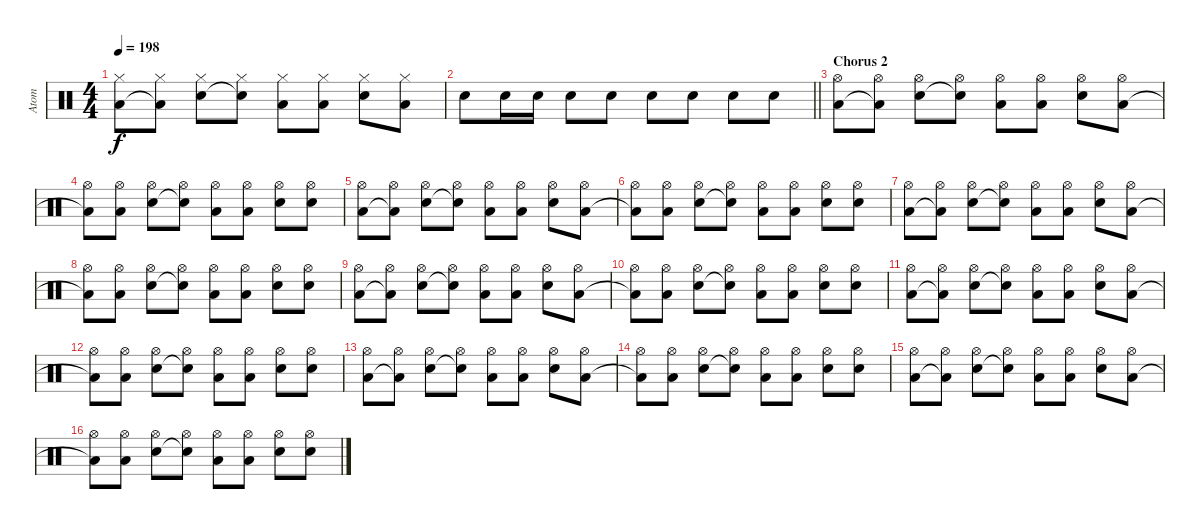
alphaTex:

\track ("Atom" "Atom") {instrument percussion}
\staff
\articulation defaults
\ts (4 4)
\tempo 198
\clef neutral
\ks c
("Low Floor Tom (hit)" "Hi-Hat (closed)").8{dy f} ("Low Floor Tom (hit)"{t} "Hi-Hat (closed)").8 ("Snare (hit) 2" "Hi-Hat (closed)").8 ("Snare (hit) 2"{t} "Hi-Hat (closed)").8 ("Low Floor Tom (hit)" "Hi-Hat (closed)").8 ("Low Floor Tom (hit)" "Hi-Hat (closed)").8 ("Snare (hit) 2" "Hi-Hat (closed)").8 ("Low Floor Tom (hit)" "Hi-Hat (closed)").8 |
\barLineRight lightlight "Snare (hit) 2".8 "Snare (hit) 2".16 "Snare (hit) 2".16 "Snare (hit) 2".8 "Snare (hit) 2".8 "Snare (hit) 2".8 "Snare (hit) 2".8 "Snare (hit) 2".8 "Snare (hit) 2".8
|
\section ("" "Chorus 2")
("Low Floor Tom (hit)" "Hi-Hat (open)").8 ("Low Floor Tom (hit)"{t} "Hi-Hat (open)").8 ("Snare (hit) 2" "Hi-Hat (open)").8 ("Snare (hit) 2"{t} "Hi-Hat (open)").8 ("Low Floor Tom (hit)" "Hi-Hat (open)").8 ("Low Floor Tom (hit)" "Hi-Hat (open)").8 ("Snare (hit) 2" "Hi-Hat (open)").8 ("Low Floor Tom (hit)" "Hi-Hat (open)").8 |
("Low Floor Tom (hit)"{t} "Hi-Hat (open)").8 ("Low Floor Tom (hit)" "Hi-Hat (open)").8 ("Snare (hit) 2" "Hi-Hat (open)").8 ("Snare (hit) 2"{t} "Hi-Hat (open)").8 ("Low Floor Tom (hit)" "Hi-Hat (open)").8 ("Low Floor Tom (hit)" "Hi-Hat (open)").8 ("Snare (hit) 2" "Hi-Hat (open)").8 ("Snare (hit) 2" "Hi-Hat (open)").8 |
("Low Floor Tom (hit)" "Hi-Hat (open)").8 ("Low Floor Tom (hit)"{t} "Hi-Hat (open)").8 ("Snare (hit) 2" "Hi-Hat (open)").8 ("Snare (hit) 2"{t} "Hi-Hat (open)").8 ("Low Floor Tom (hit)" "Hi-Hat (open)").8 ("Low Floor Tom (hit)" "Hi-Hat (open)").8 ("Snare (hit) 2" "Hi-Hat (open)").8 ("Low Floor Tom (hit)" "Hi-Hat (open)").8 |
("Low Floor Tom (hit)"{t} "Hi-Hat (open)").8 ("Low Floor Tom (hit)" "Hi-Hat (open)").8 ("Snare (hit) 2" "Hi-Hat (open)").8 ("Snare (hit) 2"{t} "Hi-Hat (open)").8 ("Low Floor Tom (hit)" "Hi-Hat (open)").8 ("Low Floor Tom (hit)" "Hi-Hat (open)").8 ("Snare (hit) 2" "Hi-Hat (open)").8 ("Snare (hit) 2" "Hi-Hat (open)").8 |
("Low Floor Tom (hit)" "Hi-Hat (open)").8 ("Low Floor Tom (hit)"{t} "Hi-Hat (open)").8 ("Snare (hit) 2" "Hi-Hat (open)").8 ("Snare (hit) 2"{t} "Hi-Hat (open)").8 ("Low Floor Tom (hit)" "Hi-Hat (open)").8 ("Low Floor Tom (hit)" "Hi-Hat (open)").8 ("Snare (hit) 2" "Hi-Hat (open)").8 ("Low Floor Tom (hit)" "Hi-Hat (open)").8 |
("Low Floor Tom (hit)"{t} "Hi-Hat (open)").8 ("Low Floor Tom (hit)" "Hi-Hat (open)").8 ("Snare (hit) 2" "Hi-Hat (open)").8 ("Snare (hit) 2"{t} "Hi-Hat (open)").8 ("Low Floor Tom (hit)" "Hi-Hat (open)").8 ("Low Floor Tom (hit)" "Hi-Hat (open)").8 ("Snare (hit) 2" "Hi-Hat (open)").8 ("Snare (hit) 2" "Hi-Hat (open)").8 |
("Low Floor Tom (hit)" "Hi-Hat (open)").8 ("Low Floor Tom (hit)"{t} "Hi-Hat (open)").8 ("Snare (hit) 2" "Hi-Hat (open)").8 ("Snare (hit) 2"{t} "Hi-Hat (open)").8 ("Low Floor Tom (hit)" "Hi-Hat (open)").8 ("Low Floor Tom (hit)" "Hi-Hat (open)").8 ("Snare (hit) 2" "Hi-Hat (open)").8 ("Low Floor Tom (hit)" "Hi-Hat (open)").8 |
("Low Floor Tom (hit)"{t} "Hi-Hat (open)").8 ("Low Floor Tom (hit)" "Hi-Hat (open)").8 ("Snare (hit) 2" "Hi-Hat (open)").8 ("Snare (hit) 2"{t} "Hi-Hat (open)").8 ("Low Floor Tom (hit)" "Hi-Hat (open)").8 ("Low Floor Tom (hit)" "Hi-Hat (open)").8 ("Snare (hit) 2" "Hi-Hat (open)").8 ("Snare (hit) 2" "Hi-Hat (open)").8 |
("Low Floor Tom (hit)" "Hi-Hat (open)").8 ("Low Floor Tom (hit)"{t} "Hi-Hat (open)").8 ("Snare (hit) 2" "Hi-Hat (open)").8 ("Snare (hit) 2"{t} "Hi-Hat (open)").8 ("Low Floor Tom (hit)" "Hi-Hat (open)").8 ("Low Floor Tom (hit)" "Hi-Hat (open)").8 ("Snare (hit) 2" "Hi-Hat (open)").8 ("Low Floor Tom (hit)" "Hi-Hat (open)").8 |
("Low Floor Tom (hit)"{t} "Hi-Hat (open)").8 ("Low Floor Tom (hit)" "Hi-Hat (open)").8 ("Snare (hit) 2" "Hi-Hat (open)").8 ("Snare (hit) 2"{t} "Hi-Hat (open)").8 ("Low Floor Tom (hit)" "Hi-Hat (open)").8 ("Low Floor Tom (hit)" "Hi-Hat (open)").8 ("Snare (hit) 2" "Hi-Hat (open)").8 ("Snare (hit) 2" "Hi-Hat (open)").8 |
("Low Floor Tom (hit)" "Hi-Hat (open)").8 ("Low Floor Tom (hit)"{t} "Hi-Hat (open)").8 ("Snare (hit) 2" "Hi-Hat (open)").8 ("Snare (hit) 2"{t} "Hi-Hat (open)").8 ("Low Floor Tom (hit)" "Hi-Hat (open)").8 ("Low Floor Tom (hit)" "Hi-Hat (open)").8 ("Snare (hit) 2" "Hi-Hat (open)").8 ("Low Floor Tom (hit)" "Hi-Hat (open)").8 |
("Low Floor Tom (hit)"{t} "Hi-Hat (open)").8 ("Low Floor Tom (hit)" "Hi-Hat (open)").8 ("Snare (hit) 2" "Hi-Hat (open)").8 ("Snare (hit) 2"{t} "Hi-Hat (open)").8 ("Low Floor Tom (hit)" "Hi-Hat (open)").8 ("Low Floor Tom (hit)" "Hi-Hat (open)").8 ("Snare (hit) 2" "Hi-Hat (open)").8 ("Snare (hit) 2" "Hi-Hat (open)").8 |
("Low Floor Tom (hit)" "Hi-Hat (open)").8 ("Low Floor Tom (hit)"{t} "Hi-Hat (open)").8 ("Snare (hit) 2" "Hi-Hat (open)").8 ("Snare (hit) 2"{t} "Hi-Hat (open)").8 ("Low Floor Tom (hit)" "Hi-Hat (open)").8 ("Low Floor Tom (hit)" "Hi-Hat (open)").8 ("Snare (hit) 2" "Hi-Hat (open)").8 ("Low Floor Tom (hit)" "Hi-Hat (open)").8 |
("Low Floor Tom (hit)"{t} "Hi-Hat (open)").8 ("Low Floor Tom (hit)" "Hi-Hat (open)").8 ("Snare (hit) 2" "Hi-Hat (open)").8 ("Snare (hit) 2"{t} "Hi-Hat (open)").8 ("Low Floor Tom (hit)" "Hi-Hat (open)").8 ("Low Floor Tom (hit)" "Hi-Hat (open)").8 ("Snare (hit) 2" "Hi-Hat (open)").8 ("Snare (hit) 2" "Hi-Hat (open)").8
